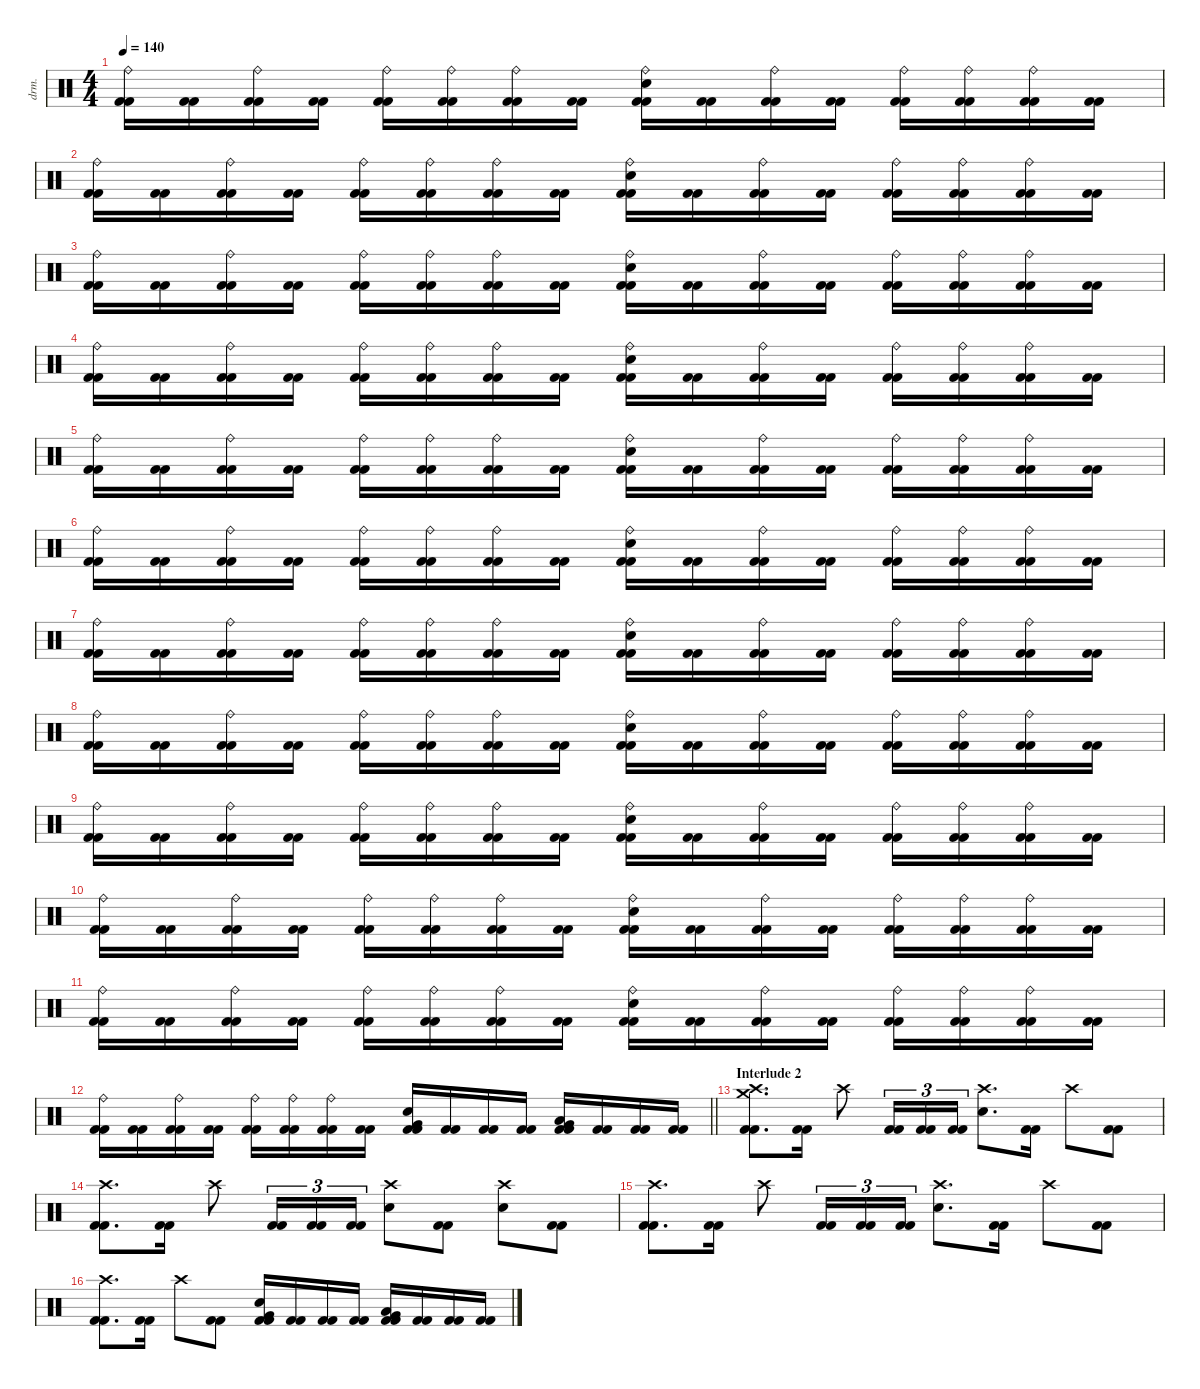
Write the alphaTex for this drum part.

\defaultSystemsLayout 4
\hideDynamics
\bracketExtendMode nobrackets
\otherSystemsTrackNameOrientation horizontal
\track ("Chris Adler" "drm.") {instrument percussion}
\staff {score}
\articulation defaults
\ts (4 4)
\tempo 140
\clef neutral
\ks c
("Ride (bell)" "Kick (hit) 2" "Kick (hit) 2").16{dy f} ("Kick (hit) 2" "Kick (hit) 2").16 ("Ride (bell)" "Kick (hit) 2" "Kick (hit) 2").16 ("Kick (hit) 2" "Kick (hit) 2").16 ("Ride (bell)" "Kick (hit) 2" "Kick (hit) 2").16 ("Ride (bell)" "Kick (hit) 2" "Kick (hit) 2").16 ("Ride (bell)" "Kick (hit) 2" "Kick (hit) 2").16 ("Kick (hit) 2" "Kick (hit) 2").16 ("Ride (bell)" "Snare (hit) 2" "Kick (hit) 2" "Kick (hit) 2").16 ("Kick (hit) 2" "Kick (hit) 2").16 ("Ride (bell)" "Kick (hit) 2" "Kick (hit) 2").16 ("Kick (hit) 2" "Kick (hit) 2").16 ("Ride (bell)" "Kick (hit) 2" "Kick (hit) 2").16 ("Ride (bell)" "Kick (hit) 2" "Kick (hit) 2").16 ("Ride (bell)" "Kick (hit) 2" "Kick (hit) 2").16 ("Kick (hit) 2" "Kick (hit) 2").16 |
("Ride (bell)" "Kick (hit) 2" "Kick (hit) 2").16 ("Kick (hit) 2" "Kick (hit) 2").16 ("Ride (bell)" "Kick (hit) 2" "Kick (hit) 2").16 ("Kick (hit) 2" "Kick (hit) 2").16 ("Ride (bell)" "Kick (hit) 2" "Kick (hit) 2").16 ("Ride (bell)" "Kick (hit) 2" "Kick (hit) 2").16 ("Ride (bell)" "Kick (hit) 2" "Kick (hit) 2").16 ("Kick (hit) 2" "Kick (hit) 2").16 ("Ride (bell)" "Snare (hit) 2" "Kick (hit) 2" "Kick (hit) 2").16 ("Kick (hit) 2" "Kick (hit) 2").16 ("Ride (bell)" "Kick (hit) 2" "Kick (hit) 2").16 ("Kick (hit) 2" "Kick (hit) 2").16 ("Ride (bell)" "Kick (hit) 2" "Kick (hit) 2").16 ("Ride (bell)" "Kick (hit) 2" "Kick (hit) 2").16 ("Ride (bell)" "Kick (hit) 2" "Kick (hit) 2").16 ("Kick (hit) 2" "Kick (hit) 2").16 |
("Ride (bell)" "Kick (hit) 2" "Kick (hit) 2").16 ("Kick (hit) 2" "Kick (hit) 2").16 ("Ride (bell)" "Kick (hit) 2" "Kick (hit) 2").16 ("Kick (hit) 2" "Kick (hit) 2").16 ("Ride (bell)" "Kick (hit) 2" "Kick (hit) 2").16 ("Ride (bell)" "Kick (hit) 2" "Kick (hit) 2").16 ("Ride (bell)" "Kick (hit) 2" "Kick (hit) 2").16 ("Kick (hit) 2" "Kick (hit) 2").16 ("Ride (bell)" "Snare (hit) 2" "Kick (hit) 2" "Kick (hit) 2").16 ("Kick (hit) 2" "Kick (hit) 2").16 ("Ride (bell)" "Kick (hit) 2" "Kick (hit) 2").16 ("Kick (hit) 2" "Kick (hit) 2").16 ("Ride (bell)" "Kick (hit) 2" "Kick (hit) 2").16 ("Ride (bell)" "Kick (hit) 2" "Kick (hit) 2").16 ("Ride (bell)" "Kick (hit) 2" "Kick (hit) 2").16 ("Kick (hit) 2" "Kick (hit) 2").16 |
("Ride (bell)" "Kick (hit) 2" "Kick (hit) 2").16 ("Kick (hit) 2" "Kick (hit) 2").16 ("Ride (bell)" "Kick (hit) 2" "Kick (hit) 2").16 ("Kick (hit) 2" "Kick (hit) 2").16 ("Ride (bell)" "Kick (hit) 2" "Kick (hit) 2").16 ("Ride (bell)" "Kick (hit) 2" "Kick (hit) 2").16 ("Ride (bell)" "Kick (hit) 2" "Kick (hit) 2").16 ("Kick (hit) 2" "Kick (hit) 2").16 ("Ride (bell)" "Snare (hit) 2" "Kick (hit) 2" "Kick (hit) 2").16 ("Kick (hit) 2" "Kick (hit) 2").16 ("Ride (bell)" "Kick (hit) 2" "Kick (hit) 2").16 ("Kick (hit) 2" "Kick (hit) 2").16 ("Ride (bell)" "Kick (hit) 2" "Kick (hit) 2").16 ("Ride (bell)" "Kick (hit) 2" "Kick (hit) 2").16 ("Ride (bell)" "Kick (hit) 2" "Kick (hit) 2").16 ("Kick (hit) 2" "Kick (hit) 2").16 |
("Ride (bell)" "Kick (hit) 2" "Kick (hit) 2").16 ("Kick (hit) 2" "Kick (hit) 2").16 ("Ride (bell)" "Kick (hit) 2" "Kick (hit) 2").16 ("Kick (hit) 2" "Kick (hit) 2").16 ("Ride (bell)" "Kick (hit) 2" "Kick (hit) 2").16 ("Ride (bell)" "Kick (hit) 2" "Kick (hit) 2").16 ("Ride (bell)" "Kick (hit) 2" "Kick (hit) 2").16 ("Kick (hit) 2" "Kick (hit) 2").16 ("Ride (bell)" "Snare (hit) 2" "Kick (hit) 2" "Kick (hit) 2").16 ("Kick (hit) 2" "Kick (hit) 2").16 ("Ride (bell)" "Kick (hit) 2" "Kick (hit) 2").16 ("Kick (hit) 2" "Kick (hit) 2").16 ("Ride (bell)" "Kick (hit) 2" "Kick (hit) 2").16 ("Ride (bell)" "Kick (hit) 2" "Kick (hit) 2").16 ("Ride (bell)" "Kick (hit) 2" "Kick (hit) 2").16 ("Kick (hit) 2" "Kick (hit) 2").16 |
("Ride (bell)" "Kick (hit) 2" "Kick (hit) 2").16 ("Kick (hit) 2" "Kick (hit) 2").16 ("Ride (bell)" "Kick (hit) 2" "Kick (hit) 2").16 ("Kick (hit) 2" "Kick (hit) 2").16 ("Ride (bell)" "Kick (hit) 2" "Kick (hit) 2").16 ("Ride (bell)" "Kick (hit) 2" "Kick (hit) 2").16 ("Ride (bell)" "Kick (hit) 2" "Kick (hit) 2").16 ("Kick (hit) 2" "Kick (hit) 2").16 ("Ride (bell)" "Snare (hit) 2" "Kick (hit) 2" "Kick (hit) 2").16 ("Kick (hit) 2" "Kick (hit) 2").16 ("Ride (bell)" "Kick (hit) 2" "Kick (hit) 2").16 ("Kick (hit) 2" "Kick (hit) 2").16 ("Ride (bell)" "Kick (hit) 2" "Kick (hit) 2").16 ("Ride (bell)" "Kick (hit) 2" "Kick (hit) 2").16 ("Ride (bell)" "Kick (hit) 2" "Kick (hit) 2").16 ("Kick (hit) 2" "Kick (hit) 2").16 |
("Ride (bell)" "Kick (hit) 2" "Kick (hit) 2").16 ("Kick (hit) 2" "Kick (hit) 2").16 ("Ride (bell)" "Kick (hit) 2" "Kick (hit) 2").16 ("Kick (hit) 2" "Kick (hit) 2").16 ("Ride (bell)" "Kick (hit) 2" "Kick (hit) 2").16 ("Ride (bell)" "Kick (hit) 2" "Kick (hit) 2").16 ("Ride (bell)" "Kick (hit) 2" "Kick (hit) 2").16 ("Kick (hit) 2" "Kick (hit) 2").16 ("Ride (bell)" "Snare (hit) 2" "Kick (hit) 2" "Kick (hit) 2").16 ("Kick (hit) 2" "Kick (hit) 2").16 ("Ride (bell)" "Kick (hit) 2" "Kick (hit) 2").16 ("Kick (hit) 2" "Kick (hit) 2").16 ("Ride (bell)" "Kick (hit) 2" "Kick (hit) 2").16 ("Ride (bell)" "Kick (hit) 2" "Kick (hit) 2").16 ("Ride (bell)" "Kick (hit) 2" "Kick (hit) 2").16 ("Kick (hit) 2" "Kick (hit) 2").16 |
("Ride (bell)" "Kick (hit) 2" "Kick (hit) 2").16 ("Kick (hit) 2" "Kick (hit) 2").16 ("Ride (bell)" "Kick (hit) 2" "Kick (hit) 2").16 ("Kick (hit) 2" "Kick (hit) 2").16 ("Ride (bell)" "Kick (hit) 2" "Kick (hit) 2").16 ("Ride (bell)" "Kick (hit) 2" "Kick (hit) 2").16 ("Ride (bell)" "Kick (hit) 2" "Kick (hit) 2").16 ("Kick (hit) 2" "Kick (hit) 2").16 ("Ride (bell)" "Snare (hit) 2" "Kick (hit) 2" "Kick (hit) 2").16 ("Kick (hit) 2" "Kick (hit) 2").16 ("Ride (bell)" "Kick (hit) 2" "Kick (hit) 2").16 ("Kick (hit) 2" "Kick (hit) 2").16 ("Ride (bell)" "Kick (hit) 2" "Kick (hit) 2").16 ("Ride (bell)" "Kick (hit) 2" "Kick (hit) 2").16 ("Ride (bell)" "Kick (hit) 2" "Kick (hit) 2").16 ("Kick (hit) 2" "Kick (hit) 2").16 |
("Ride (bell)" "Kick (hit) 2" "Kick (hit) 2").16 ("Kick (hit) 2" "Kick (hit) 2").16 ("Ride (bell)" "Kick (hit) 2" "Kick (hit) 2").16 ("Kick (hit) 2" "Kick (hit) 2").16 ("Ride (bell)" "Kick (hit) 2" "Kick (hit) 2").16 ("Ride (bell)" "Kick (hit) 2" "Kick (hit) 2").16 ("Ride (bell)" "Kick (hit) 2" "Kick (hit) 2").16 ("Kick (hit) 2" "Kick (hit) 2").16 ("Ride (bell)" "Snare (hit) 2" "Kick (hit) 2" "Kick (hit) 2").16 ("Kick (hit) 2" "Kick (hit) 2").16 ("Ride (bell)" "Kick (hit) 2" "Kick (hit) 2").16 ("Kick (hit) 2" "Kick (hit) 2").16 ("Ride (bell)" "Kick (hit) 2" "Kick (hit) 2").16 ("Ride (bell)" "Kick (hit) 2" "Kick (hit) 2").16 ("Ride (bell)" "Kick (hit) 2" "Kick (hit) 2").16 ("Kick (hit) 2" "Kick (hit) 2").16 |
("Ride (bell)" "Kick (hit) 2" "Kick (hit) 2").16 ("Kick (hit) 2" "Kick (hit) 2").16 ("Ride (bell)" "Kick (hit) 2" "Kick (hit) 2").16 ("Kick (hit) 2" "Kick (hit) 2").16 ("Ride (bell)" "Kick (hit) 2" "Kick (hit) 2").16 ("Ride (bell)" "Kick (hit) 2" "Kick (hit) 2").16 ("Ride (bell)" "Kick (hit) 2" "Kick (hit) 2").16 ("Kick (hit) 2" "Kick (hit) 2").16 ("Ride (bell)" "Snare (hit) 2" "Kick (hit) 2" "Kick (hit) 2").16 ("Kick (hit) 2" "Kick (hit) 2").16 ("Ride (bell)" "Kick (hit) 2" "Kick (hit) 2").16 ("Kick (hit) 2" "Kick (hit) 2").16 ("Ride (bell)" "Kick (hit) 2" "Kick (hit) 2").16 ("Ride (bell)" "Kick (hit) 2" "Kick (hit) 2").16 ("Ride (bell)" "Kick (hit) 2" "Kick (hit) 2").16 ("Kick (hit) 2" "Kick (hit) 2").16 |
("Ride (bell)" "Kick (hit) 2" "Kick (hit) 2").16 ("Kick (hit) 2" "Kick (hit) 2").16 ("Ride (bell)" "Kick (hit) 2" "Kick (hit) 2").16 ("Kick (hit) 2" "Kick (hit) 2").16 ("Ride (bell)" "Kick (hit) 2" "Kick (hit) 2").16 ("Ride (bell)" "Kick (hit) 2" "Kick (hit) 2").16 ("Ride (bell)" "Kick (hit) 2" "Kick (hit) 2").16 ("Kick (hit) 2" "Kick (hit) 2").16 ("Ride (bell)" "Snare (hit) 2" "Kick (hit) 2" "Kick (hit) 2").16 ("Kick (hit) 2" "Kick (hit) 2").16 ("Ride (bell)" "Kick (hit) 2" "Kick (hit) 2").16 ("Kick (hit) 2" "Kick (hit) 2").16 ("Ride (bell)" "Kick (hit) 2" "Kick (hit) 2").16 ("Ride (bell)" "Kick (hit) 2" "Kick (hit) 2").16 ("Ride (bell)" "Kick (hit) 2" "Kick (hit) 2").16 ("Kick (hit) 2" "Kick (hit) 2").16 |
\barLineRight lightlight
("Ride (bell)" "Kick (hit) 2" "Kick (hit) 2").16 ("Kick (hit) 2" "Kick (hit) 2").16 ("Ride (bell)" "Kick (hit) 2" "Kick (hit) 2").16 ("Kick (hit) 2" "Kick (hit) 2").16 ("Ride (bell)" "Kick (hit) 2" "Kick (hit) 2").16 ("Ride (bell)" "Kick (hit) 2" "Kick (hit) 2").16 ("Ride (bell)" "Kick (hit) 2" "Kick (hit) 2").16 ("Kick (hit) 2" "Kick (hit) 2").16 ("Very Low Tom (hit)" "Snare (hit) 2" "Kick (hit) 2" "Kick (hit) 2").16 ("Kick (hit) 2" "Kick (hit) 2").16 ("Kick (hit) 2" "Kick (hit) 2").16 ("Kick (hit) 2" "Kick (hit) 2").16 ("Low Tom (hit)" "Very Low Tom (hit)" "Kick (hit) 2" "Kick (hit) 2").16 ("Kick (hit) 2" "Kick (hit) 2").16 ("Kick (hit) 2" "Kick (hit) 2").16 ("Kick (hit) 2" "Kick (hit) 2").16 |
\section ("" "Interlude 2")
("Crash medium (hit)" "Crash high (hit)" "Kick (hit) 2" "Kick (hit) 2").8{d} ("Kick (hit) 2" "Kick (hit) 2").16 "Crash high (hit)".8 ("Kick (hit) 2" "Kick (hit) 2").16{tu (3 2)} ("Kick (hit) 2" "Kick (hit) 2").16{tu (3 2)} ("Kick (hit) 2" "Kick (hit) 2").16{tu (3 2)} ("Crash high (hit)" "Snare (hit) 2").8{d} ("Kick (hit) 2" "Kick (hit) 2").16 "Crash high (hit)".8 ("Kick (hit) 2" "Kick (hit) 2").8 |
("Crash high (hit)" "Kick (hit) 2" "Kick (hit) 2").8{d} ("Kick (hit) 2" "Kick (hit) 2").16 "Crash high (hit)".8 ("Kick (hit) 2" "Kick (hit) 2").16{tu (3 2)} ("Kick (hit) 2" "Kick (hit) 2").16{tu (3 2)} ("Kick (hit) 2" "Kick (hit) 2").16{tu (3 2)} ("Crash high (hit)" "Snare (hit) 2").8 ("Kick (hit) 2" "Kick (hit) 2").8 ("Crash high (hit)" "Snare (hit) 2").8 ("Kick (hit) 2" "Kick (hit) 2").8 |
("Crash high (hit)" "Kick (hit) 2" "Kick (hit) 2").8{d} ("Kick (hit) 2" "Kick (hit) 2").16 "Crash high (hit)".8 ("Kick (hit) 2" "Kick (hit) 2").16{tu (3 2)} ("Kick (hit) 2" "Kick (hit) 2").16{tu (3 2)} ("Kick (hit) 2" "Kick (hit) 2").16{tu (3 2)} ("Crash high (hit)" "Snare (hit) 2").8{d} ("Kick (hit) 2" "Kick (hit) 2").16 "Crash high (hit)".8 ("Kick (hit) 2" "Kick (hit) 2").8 |
("Crash high (hit)" "Kick (hit) 2" "Kick (hit) 2").8{d} ("Kick (hit) 2" "Kick (hit) 2").16 "Crash high (hit)".8 ("Kick (hit) 2" "Kick (hit) 2").8 ("Very Low Tom (hit)" "Snare (hit) 2" "Kick (hit) 2" "Kick (hit) 2").16 ("Kick (hit) 2" "Kick (hit) 2").16 ("Kick (hit) 2" "Kick (hit) 2").16 ("Kick (hit) 2" "Kick (hit) 2").16 ("Low Tom (hit)" "Very Low Tom (hit)" "Kick (hit) 2" "Kick (hit) 2").16 ("Kick (hit) 2" "Kick (hit) 2").16 ("Kick (hit) 2" "Kick (hit) 2").16 ("Kick (hit) 2" "Kick (hit) 2").16
